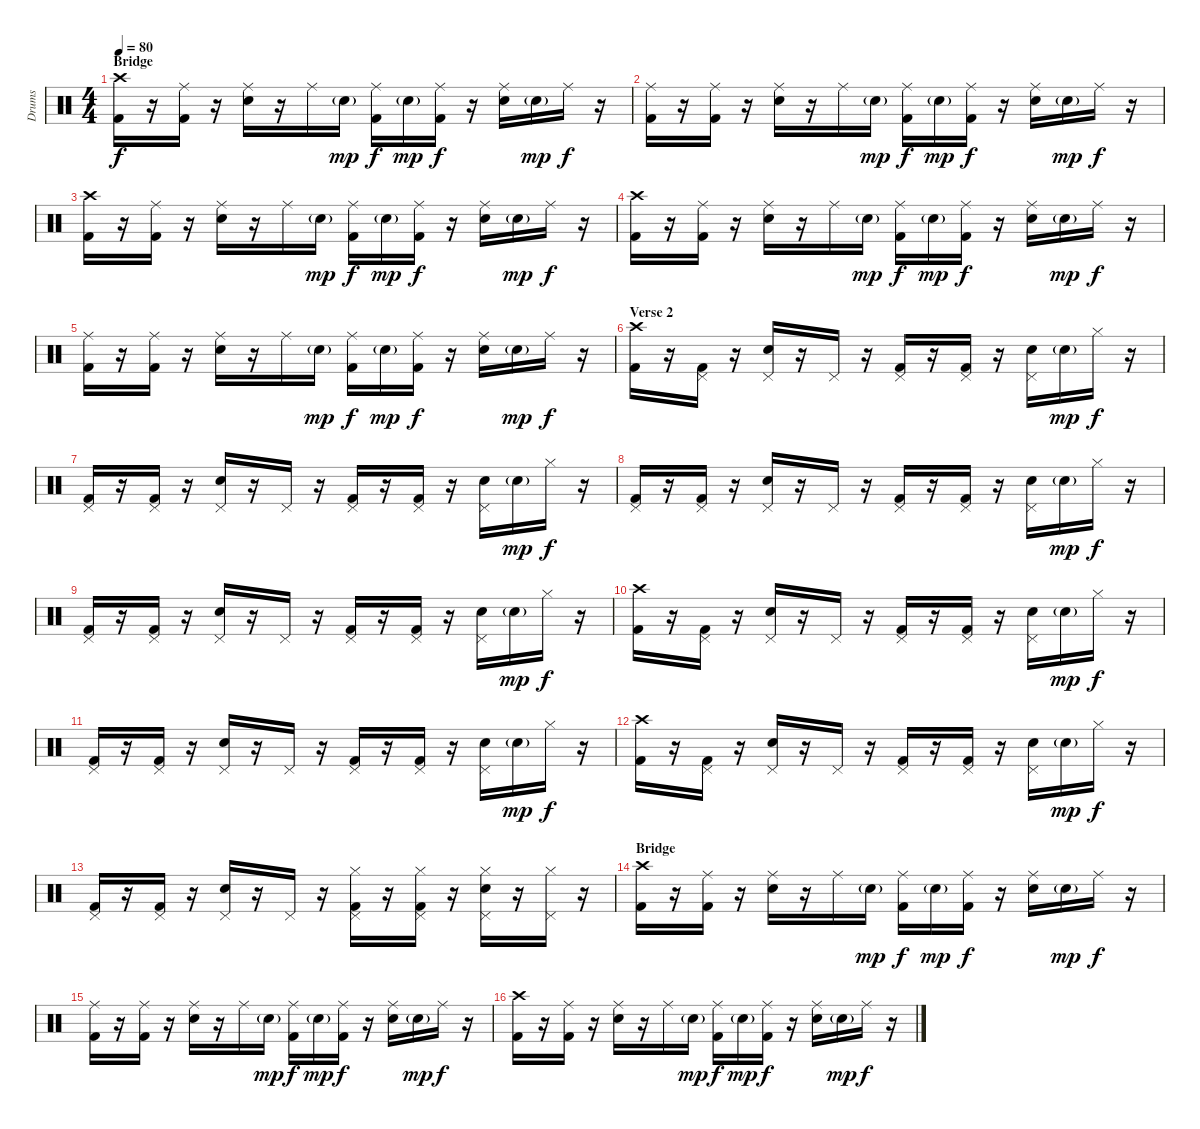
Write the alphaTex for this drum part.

\track ("Drums" "Drums") {instrument percussion}
\staff {score}
\articulation defaults
\ts (4 4)
\section ("" "Bridge")
\tempo 80
\clef neutral
\ks c
("Crash high (hit)" "Kick (hit) 2").16{dy f} r.16 ("Ride (middle)" "Kick (hit) 2").16 r.16 ("Ride (middle)" "Electric Snare (hit)").16 r.16 "Ride (middle)".16 "Electric Snare (hit)"{g}.16{dy mp} ("Ride (middle)" "Kick (hit) 2").16{dy f} "Electric Snare (hit)"{g}.16{dy mp} ("Ride (middle)" "Kick (hit) 2").16{dy f} r.16 ("Ride (middle)" "Electric Snare (hit)").16 "Electric Snare (hit)"{g}.16{dy mp} "Ride (middle)".16{dy f} r.16 |
("Ride (middle)" "Kick (hit) 2").16 r.16 ("Ride (middle)" "Kick (hit) 2").16 r.16 ("Ride (middle)" "Electric Snare (hit)").16 r.16 "Ride (middle)".16 "Electric Snare (hit)"{g}.16{dy mp} ("Ride (middle)" "Kick (hit) 2").16{dy f} "Electric Snare (hit)"{g}.16{dy mp} ("Ride (middle)" "Kick (hit) 2").16{dy f} r.16 ("Ride (middle)" "Electric Snare (hit)").16 "Electric Snare (hit)"{g}.16{dy mp} "Ride (middle)".16{dy f} r.16 |
("Crash high (hit)" "Kick (hit) 2").16 r.16 ("Ride (middle)" "Kick (hit) 2").16 r.16 ("Ride (middle)" "Electric Snare (hit)").16 r.16 "Ride (middle)".16 "Electric Snare (hit)"{g}.16{dy mp} ("Ride (middle)" "Kick (hit) 2").16{dy f} "Electric Snare (hit)"{g}.16{dy mp} ("Ride (middle)" "Kick (hit) 2").16{dy f} r.16 ("Ride (middle)" "Electric Snare (hit)").16 "Electric Snare (hit)"{g}.16{dy mp} "Ride (middle)".16{dy f} r.16 |
("Crash high (hit)" "Kick (hit) 2").16 r.16 ("Ride (middle)" "Kick (hit) 2").16 r.16 ("Ride (middle)" "Electric Snare (hit)").16 r.16 "Ride (middle)".16 "Electric Snare (hit)"{g}.16{dy mp} ("Ride (middle)" "Kick (hit) 2").16{dy f} "Electric Snare (hit)"{g}.16{dy mp} ("Ride (middle)" "Kick (hit) 2").16{dy f} r.16 ("Ride (middle)" "Electric Snare (hit)").16 "Electric Snare (hit)"{g}.16{dy mp} "Ride (middle)".16{dy f} r.16 |
("Ride (middle)" "Kick (hit) 2").16 r.16 ("Ride (middle)" "Kick (hit) 2").16 r.16 ("Ride (middle)" "Electric Snare (hit)").16 r.16 "Ride (middle)".16 "Electric Snare (hit)"{g}.16{dy mp} ("Ride (middle)" "Kick (hit) 2").16{dy f} "Electric Snare (hit)"{g}.16{dy mp} ("Ride (middle)" "Kick (hit) 2").16{dy f} r.16 ("Ride (middle)" "Electric Snare (hit)").16 "Electric Snare (hit)"{g}.16{dy mp} "Ride (middle)".16{dy f} r.16 |
\section ("" "Verse 2")
("Crash high (hit)" "Kick (hit) 2").16 r.16 ("Pedal Hi-Hat (hit)" "Kick (hit) 2").16 r.16 ("Pedal Hi-Hat (hit)" "Electric Snare (hit)").16 r.16 "Pedal Hi-Hat (hit)".16 r.16 ("Pedal Hi-Hat (hit)" "Kick (hit) 2").16 r.16 ("Pedal Hi-Hat (hit)" "Kick (hit) 2").16 r.16 ("Pedal Hi-Hat (hit)" "Electric Snare (hit)").16 "Electric Snare (hit)"{g}.16{dy mp} "Hi-Hat (closed)".16{dy f} r.16 |
("Pedal Hi-Hat (hit)" "Kick (hit) 2").16 r.16 ("Pedal Hi-Hat (hit)" "Kick (hit) 2").16 r.16 ("Pedal Hi-Hat (hit)" "Electric Snare (hit)").16 r.16 "Pedal Hi-Hat (hit)".16 r.16 ("Pedal Hi-Hat (hit)" "Kick (hit) 2").16 r.16 ("Pedal Hi-Hat (hit)" "Kick (hit) 2").16 r.16 ("Pedal Hi-Hat (hit)" "Electric Snare (hit)").16 "Electric Snare (hit)"{g}.16{dy mp} "Hi-Hat (closed)".16{dy f} r.16 |
("Pedal Hi-Hat (hit)" "Kick (hit) 2").16 r.16 ("Pedal Hi-Hat (hit)" "Kick (hit) 2").16 r.16 ("Pedal Hi-Hat (hit)" "Electric Snare (hit)").16 r.16 "Pedal Hi-Hat (hit)".16 r.16 ("Pedal Hi-Hat (hit)" "Kick (hit) 2").16 r.16 ("Pedal Hi-Hat (hit)" "Kick (hit) 2").16 r.16 ("Pedal Hi-Hat (hit)" "Electric Snare (hit)").16 "Electric Snare (hit)"{g}.16{dy mp} "Hi-Hat (closed)".16{dy f} r.16 |
("Pedal Hi-Hat (hit)" "Kick (hit) 2").16 r.16 ("Pedal Hi-Hat (hit)" "Kick (hit) 2").16 r.16 ("Pedal Hi-Hat (hit)" "Electric Snare (hit)").16 r.16 "Pedal Hi-Hat (hit)".16 r.16 ("Pedal Hi-Hat (hit)" "Kick (hit) 2").16 r.16 ("Pedal Hi-Hat (hit)" "Kick (hit) 2").16 r.16 ("Pedal Hi-Hat (hit)" "Electric Snare (hit)").16 "Electric Snare (hit)"{g}.16{dy mp} "Hi-Hat (closed)".16{dy f} r.16 |
("Crash high (hit)" "Kick (hit) 2").16 r.16 ("Pedal Hi-Hat (hit)" "Kick (hit) 2").16 r.16 ("Pedal Hi-Hat (hit)" "Electric Snare (hit)").16 r.16 "Pedal Hi-Hat (hit)".16 r.16 ("Pedal Hi-Hat (hit)" "Kick (hit) 2").16 r.16 ("Pedal Hi-Hat (hit)" "Kick (hit) 2").16 r.16 ("Pedal Hi-Hat (hit)" "Electric Snare (hit)").16 "Electric Snare (hit)"{g}.16{dy mp} "Hi-Hat (closed)".16{dy f} r.16 |
("Pedal Hi-Hat (hit)" "Kick (hit) 2").16 r.16 ("Pedal Hi-Hat (hit)" "Kick (hit) 2").16 r.16 ("Pedal Hi-Hat (hit)" "Electric Snare (hit)").16 r.16 "Pedal Hi-Hat (hit)".16 r.16 ("Pedal Hi-Hat (hit)" "Kick (hit) 2").16 r.16 ("Pedal Hi-Hat (hit)" "Kick (hit) 2").16 r.16 ("Pedal Hi-Hat (hit)" "Electric Snare (hit)").16 "Electric Snare (hit)"{g}.16{dy mp} "Hi-Hat (closed)".16{dy f} r.16 |
("Crash high (hit)" "Kick (hit) 2").16 r.16 ("Pedal Hi-Hat (hit)" "Kick (hit) 2").16 r.16 ("Pedal Hi-Hat (hit)" "Electric Snare (hit)").16 r.16 "Pedal Hi-Hat (hit)".16 r.16 ("Pedal Hi-Hat (hit)" "Kick (hit) 2").16 r.16 ("Pedal Hi-Hat (hit)" "Kick (hit) 2").16 r.16 ("Pedal Hi-Hat (hit)" "Electric Snare (hit)").16 "Electric Snare (hit)"{g}.16{dy mp} "Hi-Hat (closed)".16{dy f} r.16 |
("Pedal Hi-Hat (hit)" "Kick (hit) 2").16 r.16 ("Pedal Hi-Hat (hit)" "Kick (hit) 2").16 r.16 ("Pedal Hi-Hat (hit)" "Electric Snare (hit)").16 r.16 "Pedal Hi-Hat (hit)".16 r.16 ("Pedal Hi-Hat (hit)" "Hi-Hat (closed)" "Kick (hit) 2").16 r.16 ("Pedal Hi-Hat (hit)" "Hi-Hat (closed)" "Kick (hit) 2").16 r.16 ("Pedal Hi-Hat (hit)" "Hi-Hat (closed)" "Electric Snare (hit)").16 r.16 ("Pedal Hi-Hat (hit)" "Hi-Hat (closed)").16 r.16 |
\section ("" "Bridge")
("Crash high (hit)" "Kick (hit) 2").16 r.16 ("Ride (middle)" "Kick (hit) 2").16 r.16 ("Ride (middle)" "Electric Snare (hit)").16 r.16 "Ride (middle)".16 "Electric Snare (hit)"{g}.16{dy mp} ("Ride (middle)" "Kick (hit) 2").16{dy f} "Electric Snare (hit)"{g}.16{dy mp} ("Ride (middle)" "Kick (hit) 2").16{dy f} r.16 ("Ride (middle)" "Electric Snare (hit)").16 "Electric Snare (hit)"{g}.16{dy mp} "Ride (middle)".16{dy f} r.16 |
("Ride (middle)" "Kick (hit) 2").16 r.16 ("Ride (middle)" "Kick (hit) 2").16 r.16 ("Ride (middle)" "Electric Snare (hit)").16 r.16 "Ride (middle)".16 "Electric Snare (hit)"{g}.16{dy mp} ("Ride (middle)" "Kick (hit) 2").16{dy f} "Electric Snare (hit)"{g}.16{dy mp} ("Ride (middle)" "Kick (hit) 2").16{dy f} r.16 ("Ride (middle)" "Electric Snare (hit)").16 "Electric Snare (hit)"{g}.16{dy mp} "Ride (middle)".16{dy f} r.16 |
("Crash high (hit)" "Kick (hit) 2").16 r.16 ("Ride (middle)" "Kick (hit) 2").16 r.16 ("Ride (middle)" "Electric Snare (hit)").16 r.16 "Ride (middle)".16 "Electric Snare (hit)"{g}.16{dy mp} ("Ride (middle)" "Kick (hit) 2").16{dy f} "Electric Snare (hit)"{g}.16{dy mp} ("Ride (middle)" "Kick (hit) 2").16{dy f} r.16 ("Ride (middle)" "Electric Snare (hit)").16 "Electric Snare (hit)"{g}.16{dy mp} "Ride (middle)".16{dy f} r.16
